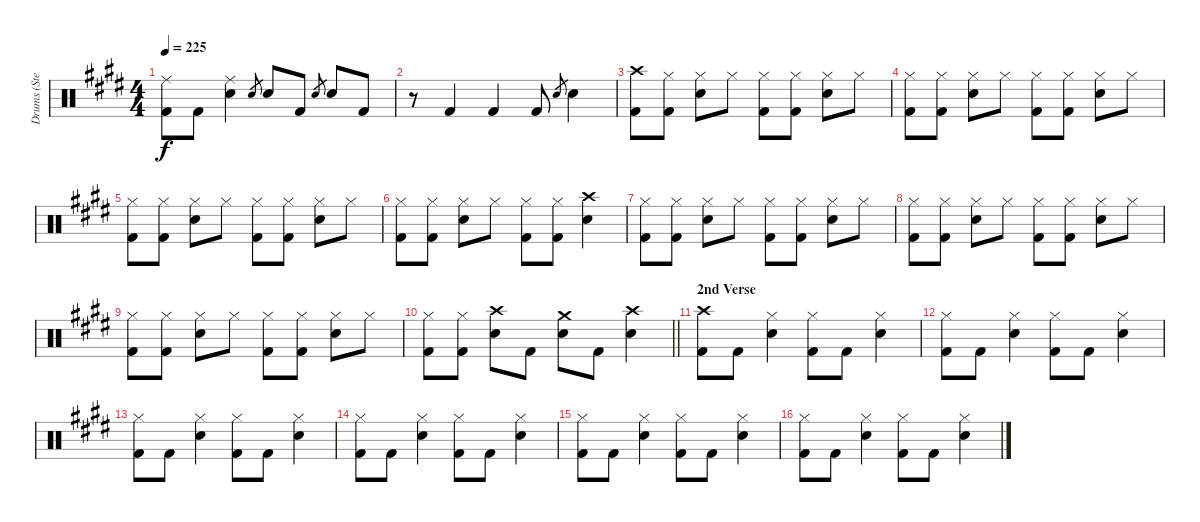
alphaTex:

\track ("Drums (Steven)" "Drums (Ste") {instrument percussion}
\staff {score}
\articulation defaults
\ts (4 4)
\tempo 225
\clef neutral
\ks e
("Ride (middle)" "Kick (hit) 2").8{dy f} "Kick (hit) 2".8 ("Ride (middle)" "Snare (hit) 2").4 "Snare (hit) 2".8{gr} "Snare (hit) 2".8 "Kick (hit) 2".8 "Snare (hit) 2".8{gr} "Snare (hit) 2".8 "Kick (hit) 2".8 |
r.8 "Kick (hit) 2".4 "Kick (hit) 2".4 "Kick (hit) 2".8 "Snare (hit) 2".8{gr} "Snare (hit) 2".4 |
("Crash high (hit)" "Kick (hit) 2").8 ("Hi-Hat (closed)" "Kick (hit) 2").8 ("Hi-Hat (closed)" "Snare (hit) 2").8 "Hi-Hat (closed)".8 ("Hi-Hat (closed)" "Kick (hit) 2").8 ("Hi-Hat (closed)" "Kick (hit) 2").8 ("Hi-Hat (closed)" "Snare (hit) 2").8 "Hi-Hat (closed)".8 |
("Hi-Hat (closed)" "Kick (hit) 2").8 ("Hi-Hat (closed)" "Kick (hit) 2").8 ("Hi-Hat (closed)" "Snare (hit) 2").8 "Hi-Hat (closed)".8 ("Hi-Hat (closed)" "Kick (hit) 2").8 ("Hi-Hat (closed)" "Kick (hit) 2").8 ("Hi-Hat (closed)" "Snare (hit) 2").8 "Hi-Hat (closed)".8 |
("Hi-Hat (closed)" "Kick (hit) 2").8 ("Hi-Hat (closed)" "Kick (hit) 2").8 ("Hi-Hat (closed)" "Snare (hit) 2").8 "Hi-Hat (closed)".8 ("Hi-Hat (closed)" "Kick (hit) 2").8 ("Hi-Hat (closed)" "Kick (hit) 2").8 ("Hi-Hat (closed)" "Snare (hit) 2").8 "Hi-Hat (closed)".8 |
("Hi-Hat (closed)" "Kick (hit) 2").8 ("Hi-Hat (closed)" "Kick (hit) 2").8 ("Hi-Hat (closed)" "Snare (hit) 2").8 "Hi-Hat (closed)".8 ("Hi-Hat (closed)" "Kick (hit) 2").8 ("Hi-Hat (closed)" "Kick (hit) 2").8 ("Crash high (hit)" "Snare (hit) 2").4 |
("Hi-Hat (closed)" "Kick (hit) 2").8 ("Hi-Hat (closed)" "Kick (hit) 2").8 ("Hi-Hat (closed)" "Snare (hit) 2").8 "Hi-Hat (closed)".8 ("Hi-Hat (closed)" "Kick (hit) 2").8 ("Hi-Hat (closed)" "Kick (hit) 2").8 ("Hi-Hat (closed)" "Snare (hit) 2").8 "Hi-Hat (closed)".8 |
("Hi-Hat (closed)" "Kick (hit) 2").8 ("Hi-Hat (closed)" "Kick (hit) 2").8 ("Hi-Hat (closed)" "Snare (hit) 2").8 "Hi-Hat (closed)".8 ("Hi-Hat (closed)" "Kick (hit) 2").8 ("Hi-Hat (closed)" "Kick (hit) 2").8 ("Hi-Hat (closed)" "Snare (hit) 2").8 "Hi-Hat (closed)".8 |
("Hi-Hat (closed)" "Kick (hit) 2").8 ("Hi-Hat (closed)" "Kick (hit) 2").8 ("Hi-Hat (closed)" "Snare (hit) 2").8 "Hi-Hat (closed)".8 ("Hi-Hat (closed)" "Kick (hit) 2").8 ("Hi-Hat (closed)" "Kick (hit) 2").8 ("Hi-Hat (closed)" "Snare (hit) 2").8 "Hi-Hat (closed)".8 |
\barLineRight lightlight
("Hi-Hat (closed)" "Kick (hit) 2").8 ("Hi-Hat (closed)" "Kick (hit) 2").8 ("Crash high (hit)" "Snare (hit) 2").8 "Kick (hit) 2".8 ("Crash medium (hit)" "Snare (hit) 2").8 "Kick (hit) 2".8 ("Crash high (hit)" "Snare (hit) 2").4 |
\section ("" "2nd Verse")
("Crash high (hit)" "Kick (hit) 2").8 "Kick (hit) 2".8 ("Hi-Hat (closed)" "Snare (hit) 2").4 ("Hi-Hat (closed)" "Kick (hit) 2").8 "Kick (hit) 2".8 ("Hi-Hat (closed)" "Snare (hit) 2").4 |
("Hi-Hat (closed)" "Kick (hit) 2").8 "Kick (hit) 2".8 ("Hi-Hat (closed)" "Snare (hit) 2").4 ("Hi-Hat (closed)" "Kick (hit) 2").8 "Kick (hit) 2".8 ("Hi-Hat (closed)" "Snare (hit) 2").4 |
("Hi-Hat (closed)" "Kick (hit) 2").8 "Kick (hit) 2".8 ("Hi-Hat (closed)" "Snare (hit) 2").4 ("Hi-Hat (closed)" "Kick (hit) 2").8 "Kick (hit) 2".8 ("Hi-Hat (closed)" "Snare (hit) 2").4 |
("Hi-Hat (closed)" "Kick (hit) 2").8 "Kick (hit) 2".8 ("Hi-Hat (closed)" "Snare (hit) 2").4 ("Hi-Hat (closed)" "Kick (hit) 2").8 "Kick (hit) 2".8 ("Hi-Hat (closed)" "Snare (hit) 2").4 |
("Hi-Hat (closed)" "Kick (hit) 2").8 "Kick (hit) 2".8 ("Hi-Hat (closed)" "Snare (hit) 2").4 ("Hi-Hat (closed)" "Kick (hit) 2").8 "Kick (hit) 2".8 ("Hi-Hat (closed)" "Snare (hit) 2").4 |
("Hi-Hat (closed)" "Kick (hit) 2").8 "Kick (hit) 2".8 ("Hi-Hat (closed)" "Snare (hit) 2").4 ("Hi-Hat (closed)" "Kick (hit) 2").8 "Kick (hit) 2".8 ("Hi-Hat (closed)" "Snare (hit) 2").4
